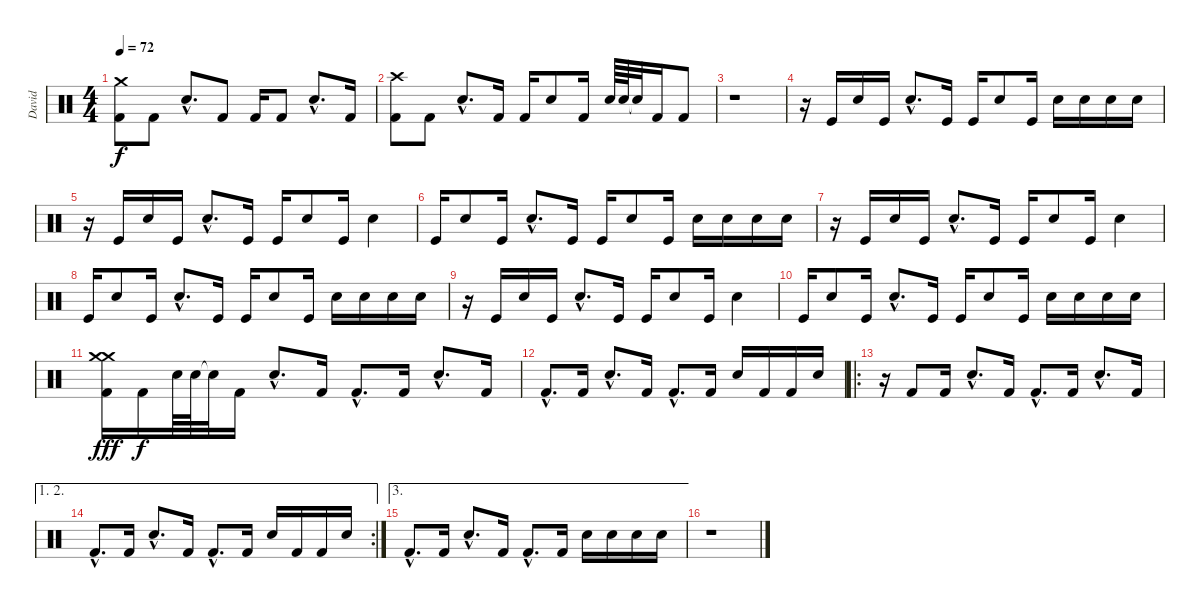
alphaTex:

\track ("David" "David") {instrument percussion}
\staff {score}
\articulation defaults
\ts (4 4)
\tempo 72
\clef neutral
\ks c
("Crash medium (hit)" "Kick (hit) 2").8{dy f} "Kick (hit) 2".8 "Snare (hit) 2"{hac}.8{d} "Kick (hit) 2".8 "Kick (hit) 2".16 "Kick (hit) 2".8 "Snare (hit) 2"{hac}.8{d} "Kick (hit) 2".16 |
("Crash high (hit)" "Kick (hit) 2").8 "Kick (hit) 2".8 "Snare (hit) 2"{hac}.8{d} "Kick (hit) 2".16 "Kick (hit) 2".16 "Snare (hit) 2".8 "Kick (hit) 2".16 "Snare (hit) 2".64 "Snare (hit) 2".64 "Snare (hit)"{t}.32 "Kick (hit) 2".16 "Kick (hit) 2".8 |
r.1 |
r.16 "Kick (hit)".16 "Electric Snare (hit)".16 "Kick (hit)".16 "Electric Snare (hit)"{hac}.8{d} "Kick (hit)".16 "Kick (hit)".16 "Electric Snare (hit)".8 "Kick (hit)".16 "Electric Snare (hit)".16 "Electric Snare (hit)".16 "Electric Snare (hit)".16 "Electric Snare (hit)".16 |
r.16 "Kick (hit)".16 "Electric Snare (hit)".16 "Kick (hit)".16 "Electric Snare (hit)"{hac}.8{d} "Kick (hit)".16 "Kick (hit)".16 "Electric Snare (hit)".8 "Kick (hit)".16 "Electric Snare (hit)".4 |
"Kick (hit)".16 "Electric Snare (hit)".8 "Kick (hit)".16 "Electric Snare (hit)"{hac}.8{d} "Kick (hit)".16 "Kick (hit)".16 "Electric Snare (hit)".8 "Kick (hit)".16 "Electric Snare (hit)".16 "Electric Snare (hit)".16 "Electric Snare (hit)".16 "Electric Snare (hit)".16 |
r.16 "Kick (hit)".16 "Electric Snare (hit)".16 "Kick (hit)".16 "Electric Snare (hit)"{hac}.8{d} "Kick (hit)".16 "Kick (hit)".16 "Electric Snare (hit)".8 "Kick (hit)".16 "Electric Snare (hit)".4 |
"Kick (hit)".16 "Electric Snare (hit)".8 "Kick (hit)".16 "Electric Snare (hit)"{hac}.8{d} "Kick (hit)".16 "Kick (hit)".16 "Electric Snare (hit)".8 "Kick (hit)".16 "Electric Snare (hit)".16 "Electric Snare (hit)".16 "Electric Snare (hit)".16 "Electric Snare (hit)".16 |
r.16 "Kick (hit)".16 "Electric Snare (hit)".16 "Kick (hit)".16 "Electric Snare (hit)"{hac}.8{d} "Kick (hit)".16 "Kick (hit)".16 "Electric Snare (hit)".8 "Kick (hit)".16 "Electric Snare (hit)".4 |
"Kick (hit)".16 "Electric Snare (hit)".8 "Kick (hit)".16 "Electric Snare (hit)"{hac}.8{d} "Kick (hit)".16 "Kick (hit)".16 "Electric Snare (hit)".8 "Kick (hit)".16 "Electric Snare (hit)".16 "Electric Snare (hit)".16 "Electric Snare (hit)".16 "Electric Snare (hit)".16 |
("Crash medium (hit)" "Crash medium (hit)" "Kick (hit) 2").16{dy fff} "Kick (hit) 2".16{dy f} "Snare (hit) 2".64 "Snare (hit) 2".64 "Snare (hit)"{t}.32 "Kick (hit) 2".16 "Snare (hit) 2"{hac}.8{d} "Kick (hit) 2".16 "Kick (hit) 2"{hac}.8{d} "Kick (hit) 2".16 "Snare (hit) 2"{hac}.8{d} "Kick (hit) 2".16 |
"Kick (hit) 2"{hac}.8{d} "Kick (hit) 2".16 "Snare (hit) 2"{hac}.8{d} "Kick (hit) 2".16 "Kick (hit) 2"{hac}.8{d} "Kick (hit) 2".16 "Snare (hit) 2".16 "Kick (hit) 2".16 "Kick (hit) 2".16 "Snare (hit) 2".16 |
\ro
r.16 "Kick (hit) 2".8 "Kick (hit) 2".16 "Snare (hit) 2"{hac}.8{d} "Kick (hit) 2".16 "Kick (hit) 2"{hac}.8{d} "Kick (hit) 2".16 "Snare (hit) 2"{hac}.8{d} "Kick (hit) 2".16 |
\ae (1 2)
\rc 2 "Kick (hit) 2"{hac}.8{d} "Kick (hit) 2".16 "Snare (hit) 2"{hac}.8{d} "Kick (hit) 2".16 "Kick (hit) 2"{hac}.8{d} "Kick (hit) 2".16 "Snare (hit) 2".16 "Kick (hit) 2".16 "Kick (hit) 2".16 "Snare (hit) 2".16
|
\ae 3 "Kick (hit) 2"{hac}.8{d} "Kick (hit) 2".16 "Snare (hit) 2"{hac}.8{d} "Kick (hit) 2".16 "Kick (hit) 2"{hac}.8{d} "Kick (hit) 2".16 "Snare (hit) 2".16 "Snare (hit) 2".16 "Snare (hit) 2".16 "Snare (hit) 2".16
|
r.1
